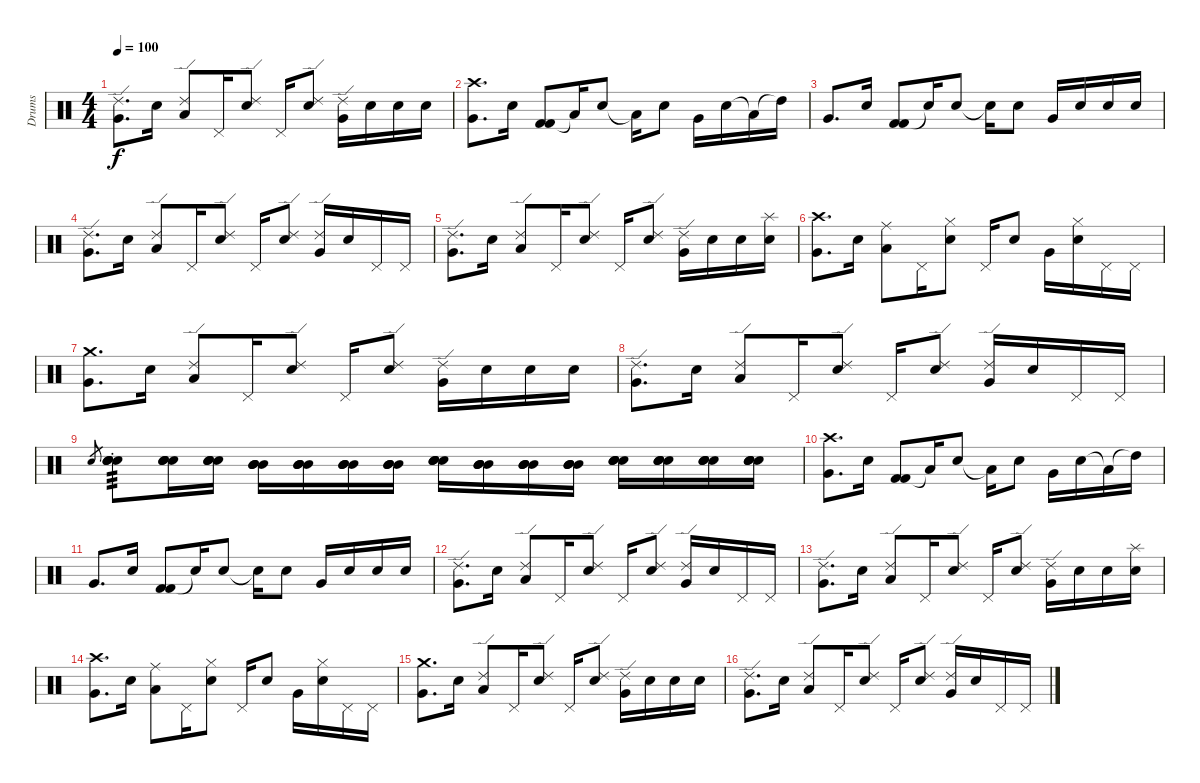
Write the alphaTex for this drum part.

\track ("Drums" "Drums") {instrument percussion}
\staff {score}
\articulation defaults
\ts (4 4)
\tempo 100
\clef neutral
\ks c
("Ride (edge) 2" "Very Low Tom (hit)").8{d dy f} "Electric Snare (hit)".16 ("Ride (edge) 2" "Low Tom (hit)").8 "Pedal Hi-Hat (hit)".16 ("Ride (edge) 2" "Electric Snare (hit)").8 "Pedal Hi-Hat (hit)".16 ("Ride (edge) 2" "Electric Snare (hit)").8 ("Ride (edge) 2" "Very Low Tom (hit)").16 "Electric Snare (hit)".16 "Electric Snare (hit)".16 "Electric Snare (hit)".16 |
("Crash high (hit)" "Very Low Tom (hit)").8{d} "Electric Snare (hit)".16 ("Kick (hit) 2" "Kick (hit) 2").8 "Low Tom (hit)"{t}.16 "Electric Snare (hit)".8 "Low Tom (hit)"{t}.16 "Electric Snare (hit)".8 "Very Low Tom (hit)".16 "Electric Snare (hit)".16 "Low Tom (hit)"{t}.16 "High Tom (hit)"{t}.16 |
"Very Low Tom (hit)".8{d} "Electric Snare (hit)".16 ("Kick (hit) 2" "Kick (hit) 2").8 "Snare (hit)"{t}.16 "Electric Snare (hit)".8 "Snare (hit)"{t}.16 "Electric Snare (hit)".8 "Very Low Tom (hit)".16 "Electric Snare (hit)".16 "Electric Snare (hit)".16 "Electric Snare (hit)".16 |
("Ride (edge) 2" "Very Low Tom (hit)").8{d} "Electric Snare (hit)".16 ("Ride (edge) 2" "Low Tom (hit)").8 "Pedal Hi-Hat (hit)".16 ("Ride (edge) 2" "Electric Snare (hit)").8 "Pedal Hi-Hat (hit)".16 ("Ride (edge) 2" "Electric Snare (hit)").8 ("Ride (edge) 2" "Very Low Tom (hit)").16 "Electric Snare (hit)".16 "Pedal Hi-Hat (hit)".16 "Pedal Hi-Hat (hit)".16 |
("Ride (edge) 2" "Very Low Tom (hit)").8{d} "Electric Snare (hit)".16 ("Ride (edge) 2" "Low Tom (hit)").8 "Pedal Hi-Hat (hit)".16 ("Ride (edge) 2" "Electric Snare (hit)").8 "Pedal Hi-Hat (hit)".16 ("Ride (edge) 2" "Electric Snare (hit)").8 ("Ride (edge) 2" "Very Low Tom (hit)").16 "Electric Snare (hit)".16 "Electric Snare (hit)".16 ("Splash (hit)" "Electric Snare (hit)").16 |
("Crash high (hit)" "Very Low Tom (hit)").8{d} "Electric Snare (hit)".16 ("Ride (middle)" "Low Tom (hit)").8 "Pedal Hi-Hat (hit)".16 ("Hi-Hat (closed)" "Electric Snare (hit)").8 "Pedal Hi-Hat (hit)".16 "Electric Snare (hit)".8 "Very Low Tom (hit)".16 ("Hi-Hat (closed)" "Electric Snare (hit)").16 "Pedal Hi-Hat (hit)".16 "Pedal Hi-Hat (hit)".16 |
("Crash medium (hit)" "Very Low Tom (hit)").8{d} "Electric Snare (hit)".16 ("Ride (edge) 2" "Low Tom (hit)").8 "Pedal Hi-Hat (hit)".16 ("Ride (edge) 2" "Electric Snare (hit)").8 "Pedal Hi-Hat (hit)".16 ("Ride (edge) 2" "Electric Snare (hit)").8 ("Ride (edge) 2" "Very Low Tom (hit)").16 "Electric Snare (hit)".16 "Electric Snare (hit)".16 "Electric Snare (hit)".16 |
("Ride (edge) 2" "Very Low Tom (hit)").8{d} "Electric Snare (hit)".16 ("Ride (edge) 2" "Low Tom (hit)").8 "Pedal Hi-Hat (hit)".16 ("Ride (edge) 2" "Electric Snare (hit)").8 "Pedal Hi-Hat (hit)".16 ("Ride (edge) 2" "Electric Snare (hit)").8 ("Ride (edge) 2" "Very Low Tom (hit)").16 "Electric Snare (hit)".16 "Pedal Hi-Hat (hit)".16 "Pedal Hi-Hat (hit)".16 |
"Electric Snare (hit)".8{gr} ("Electric Snare (hit)" "Electric Snare (hit)" "Electric Snare (hit)" "Electric Snare (hit)"{st}).8{tp 3} ("Electric Snare (hit)" "Electric Snare (hit)" "Electric Snare (hit)" "Electric Snare (hit)").16 ("Electric Snare (hit)" "Electric Snare (hit)" "Electric Snare (hit)" "Electric Snare (hit)").16 ("Mid Tom (hit)" "Mid Tom (hit)" "Mid Tom (hit)" "Mid Tom (hit)").16 ("Mid Tom (hit)" "Mid Tom (hit)" "Mid Tom (hit)" "Mid Tom (hit)").16 ("Mid Tom (hit)" "Mid Tom (hit)" "Mid Tom (hit)" "Mid Tom (hit)").16 ("Mid Tom (hit)" "Mid Tom (hit)" "Mid Tom (hit)" "Mid Tom (hit)").16 ("Electric Snare (hit)" "Electric Snare (hit)" "Electric Snare (hit)" "Electric Snare (hit)").16 ("Mid Tom (hit)" "Mid Tom (hit)" "Mid Tom (hit)" "Mid Tom (hit)").16 ("Mid Tom (hit)" "Mid Tom (hit)" "Mid Tom (hit)" "Mid Tom (hit)").16 ("Mid Tom (hit)" "Mid Tom (hit)" "Mid Tom (hit)" "Mid Tom (hit)").16 ("Electric Snare (hit)" "Electric Snare (hit)" "Electric Snare (hit)" "Electric Snare (hit)").16 ("Electric Snare (hit)" "Electric Snare (hit)" "Electric Snare (hit)" "Electric Snare (hit)").16 ("Electric Snare (hit)" "Electric Snare (hit)" "Electric Snare (hit)" "Electric Snare (hit)").16 ("Electric Snare (hit)" "Electric Snare (hit)" "Electric Snare (hit)" "Electric Snare (hit)").16 |
("Crash high (hit)" "Very Low Tom (hit)").8{d} "Electric Snare (hit)".16 ("Kick (hit) 2" "Kick (hit) 2").8 "Low Tom (hit)"{t}.16 "Electric Snare (hit)".8 "Low Tom (hit)"{t}.16 "Electric Snare (hit)".8 "Very Low Tom (hit)".16 "Electric Snare (hit)".16 "Low Tom (hit)"{t}.16 "High Tom (hit)"{t}.16 |
"Very Low Tom (hit)".8{d} "Electric Snare (hit)".16 ("Kick (hit) 2" "Kick (hit) 2").8 "Snare (hit)"{t}.16 "Electric Snare (hit)".8 "Snare (hit)"{t}.16 "Electric Snare (hit)".8 "Very Low Tom (hit)".16 "Electric Snare (hit)".16 "Electric Snare (hit)".16 "Electric Snare (hit)".16 |
("Ride (edge) 2" "Very Low Tom (hit)").8{d} "Electric Snare (hit)".16 ("Ride (edge) 2" "Low Tom (hit)").8 "Pedal Hi-Hat (hit)".16 ("Ride (edge) 2" "Electric Snare (hit)").8 "Pedal Hi-Hat (hit)".16 ("Ride (edge) 2" "Electric Snare (hit)").8 ("Ride (edge) 2" "Very Low Tom (hit)").16 "Electric Snare (hit)".16 "Pedal Hi-Hat (hit)".16 "Pedal Hi-Hat (hit)".16 |
("Ride (edge) 2" "Very Low Tom (hit)").8{d} "Electric Snare (hit)".16 ("Ride (edge) 2" "Low Tom (hit)").8 "Pedal Hi-Hat (hit)".16 ("Ride (edge) 2" "Electric Snare (hit)").8 "Pedal Hi-Hat (hit)".16 ("Ride (edge) 2" "Electric Snare (hit)").8 ("Ride (edge) 2" "Very Low Tom (hit)").16 "Electric Snare (hit)".16 "Electric Snare (hit)".16 ("Splash (hit)" "Electric Snare (hit)").16 |
("Crash high (hit)" "Very Low Tom (hit)").8{d} "Electric Snare (hit)".16 ("Ride (middle)" "Low Tom (hit)").8 "Pedal Hi-Hat (hit)".16 ("Hi-Hat (closed)" "Electric Snare (hit)").8 "Pedal Hi-Hat (hit)".16 "Electric Snare (hit)".8 "Very Low Tom (hit)".16 ("Hi-Hat (closed)" "Electric Snare (hit)").16 "Pedal Hi-Hat (hit)".16 "Pedal Hi-Hat (hit)".16 |
("Crash medium (hit)" "Very Low Tom (hit)").8{d} "Electric Snare (hit)".16 ("Ride (edge) 2" "Low Tom (hit)").8 "Pedal Hi-Hat (hit)".16 ("Ride (edge) 2" "Electric Snare (hit)").8 "Pedal Hi-Hat (hit)".16 ("Ride (edge) 2" "Electric Snare (hit)").8 ("Ride (edge) 2" "Very Low Tom (hit)").16 "Electric Snare (hit)".16 "Electric Snare (hit)".16 "Electric Snare (hit)".16 |
("Ride (edge) 2" "Very Low Tom (hit)").8{d} "Electric Snare (hit)".16 ("Ride (edge) 2" "Low Tom (hit)").8 "Pedal Hi-Hat (hit)".16 ("Ride (edge) 2" "Electric Snare (hit)").8 "Pedal Hi-Hat (hit)".16 ("Ride (edge) 2" "Electric Snare (hit)").8 ("Ride (edge) 2" "Very Low Tom (hit)").16 "Electric Snare (hit)".16 "Pedal Hi-Hat (hit)".16 "Pedal Hi-Hat (hit)".16
